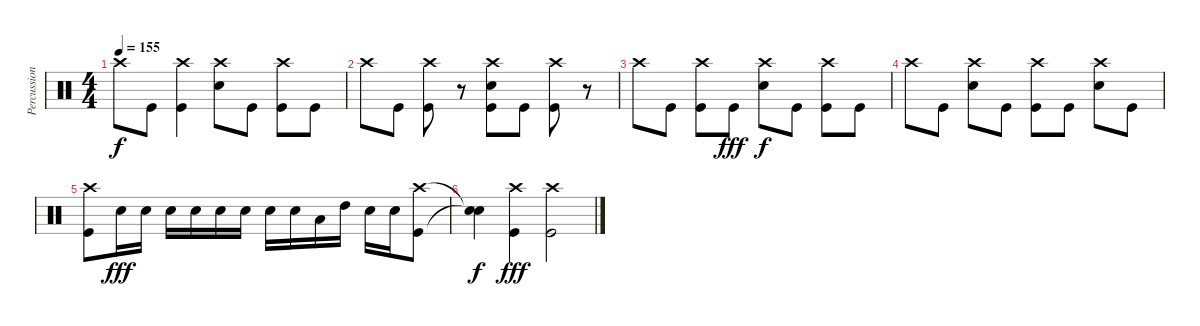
\track ("Percussion" "Percussion") {instrument percussion}
\staff {score}
\articulation defaults
\ts (4 4)
\tempo 155
\clef neutral
\ks c "Crash high (hit)".8{dy f} "Kick (hit)".8
("Crash high (hit)" "Kick (hit)").4 ("Crash high (hit)" "Snare (hit) 2").8 "Kick (hit)".8 ("Crash high (hit)" "Kick (hit)").8 "Kick (hit)".8 |
"Crash high (hit)".8 "Kick (hit)".8 ("Crash high (hit)" "Kick (hit)").8 r.8 ("Crash high (hit)" "Snare (hit) 2" "Kick (hit)").8 "Kick (hit)".8 ("Crash high (hit)" "Kick (hit)").8 r.8 |
"Crash high (hit)".8 "Kick (hit)".8 ("Crash high (hit)" "Kick (hit)").8 "Kick (hit)".8{dy fff} ("Crash high (hit)" "Snare (hit) 2").8{dy f} "Kick (hit)".8 ("Crash high (hit)" "Kick (hit)").8 "Kick (hit)".8 |
"Crash high (hit)".8 "Kick (hit)".8 ("Crash high (hit)" "Snare (hit) 2").8 "Kick (hit)".8 ("Crash high (hit)" "Kick (hit)").8 "Kick (hit)".8 ("Crash high (hit)" "Snare (hit) 2").8 "Kick (hit)".8 |
("Crash high (hit)" "Kick (hit)").8 "Snare (hit) 2".16{dy fff} "Snare (hit) 2".16 "Snare (hit) 2".16 "Snare (hit) 2".16 "Snare (hit) 2".16 "Snare (hit) 2".16 "Snare (hit) 2".16 "Snare (hit) 2".16 "Low Tom (hit)".16 "High Tom (hit)".16 "Snare (hit) 2".16 "Snare (hit) 2".16 ("Crash high (hit)" "Kick (hit)").8 |
("Snare (hit)"{t} "Snare (hit)"{t}).4{dy f} ("Crash high (hit)" "Kick (hit)").4{dy fff} ("Crash high (hit)" "Kick (hit)").2
